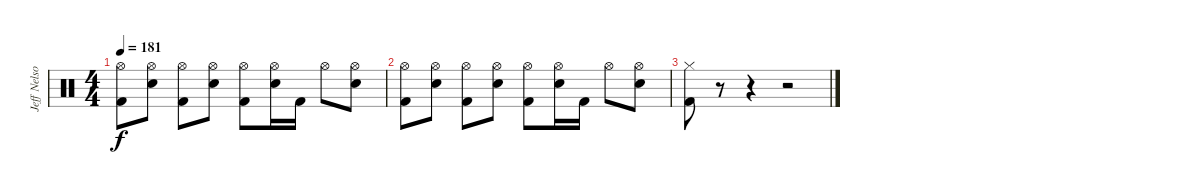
\track ("Jeff Nelson" "Jeff Nelso") {instrument percussion}
\staff {score}
\articulation defaults
\ts (4 4)
\tempo 181
\clef neutral
\ks c
("Kick (hit) 2" "Hi-Hat (open)").8{dy f} ("Snare (hit) 2" "Hi-Hat (open)").8 ("Kick (hit) 2" "Hi-Hat (open)").8 ("Snare (hit) 2" "Hi-Hat (open)").8 ("Kick (hit) 2" "Hi-Hat (open)").8 ("Snare (hit) 2" "Hi-Hat (open)").16 "Kick (hit) 2".16 "Hi-Hat (open)".8 ("Snare (hit) 2" "Hi-Hat (open)").8 |
("Kick (hit) 2" "Hi-Hat (open)").8 ("Snare (hit) 2" "Hi-Hat (open)").8 ("Kick (hit) 2" "Hi-Hat (open)").8 ("Snare (hit) 2" "Hi-Hat (open)").8 ("Kick (hit) 2" "Hi-Hat (open)").8 ("Snare (hit) 2" "Hi-Hat (open)").16 "Kick (hit) 2".16 "Hi-Hat (open)".8 ("Snare (hit) 2" "Hi-Hat (open)").8 |
("Kick (hit) 2" "Hi-Hat (closed)").8 r.8 r.4 r.2
